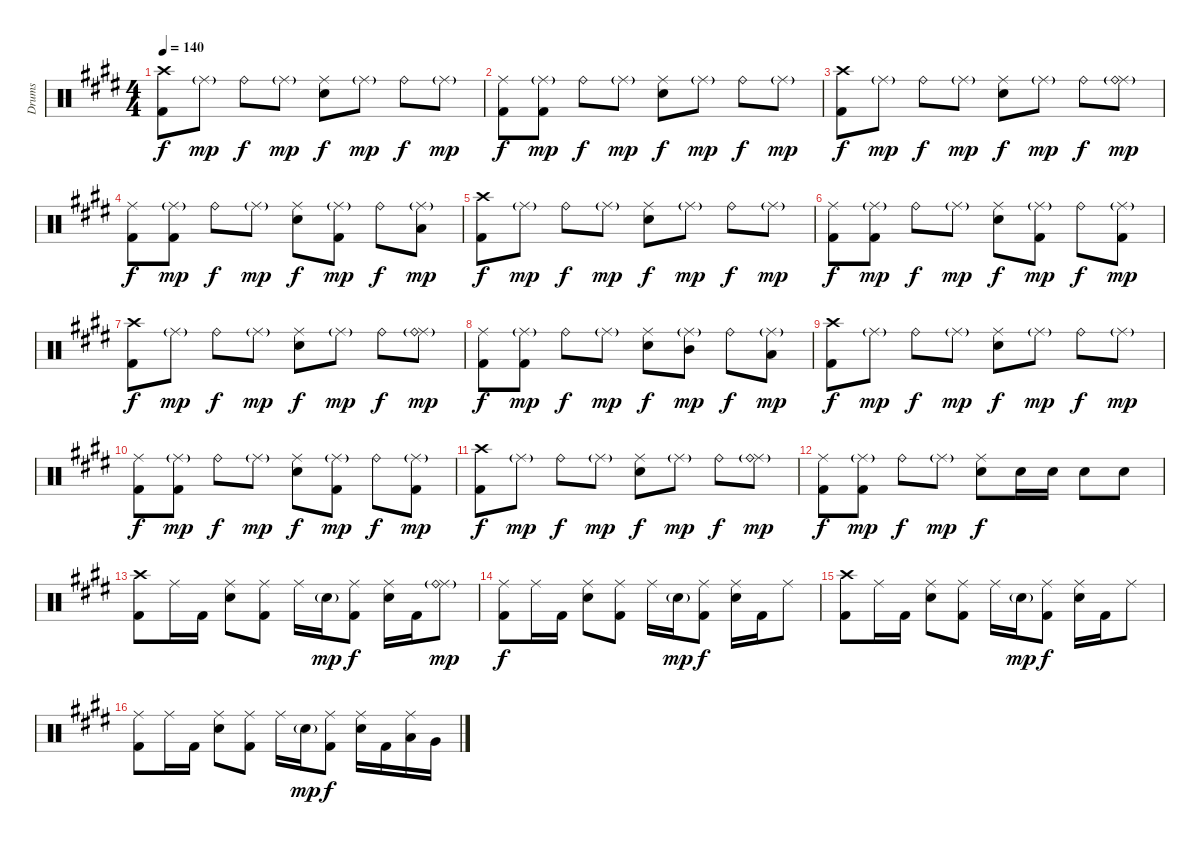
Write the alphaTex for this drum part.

\track ("Drums" "Drums") {instrument percussion}
\staff {score}
\articulation defaults
\ts (4 4)
\tempo 140
\clef neutral
\ks e
("Crash high (hit)" "Kick (hit) 2").8{dy f} "Ride (middle)"{g}.8{dy mp} "Ride (bell)".8{dy f} "Ride (middle)"{g}.8{dy mp} ("Ride (middle)" "Snare (hit) 2").8{dy f} "Ride (middle)"{g}.8{dy mp} "Ride (bell)".8{dy f} "Ride (middle)"{g}.8{dy mp} |
("Ride (middle)" "Kick (hit) 2").8{dy f} ("Ride (middle)"{g} "Kick (hit) 2").8{dy mp} "Ride (bell)".8{dy f} "Ride (middle)"{g}.8{dy mp} ("Ride (middle)" "Snare (hit) 2").8{dy f} "Ride (middle)"{g}.8{dy mp} "Ride (bell)".8{dy f} "Ride (middle)"{g}.8{dy mp} |
("Crash high (hit)" "Kick (hit) 2").8{dy f} "Ride (middle)"{g}.8{dy mp} "Ride (bell)".8{dy f} "Ride (middle)"{g}.8{dy mp} ("Ride (middle)" "Snare (hit) 2").8{dy f} "Ride (middle)"{g}.8{dy mp} "Ride (bell)".8{dy f} ("Ride (middle)"{g} "Ride (bell)"{g}).8{dy mp} |
("Ride (middle)" "Kick (hit) 2").8{dy f} ("Ride (middle)"{g} "Kick (hit) 2").8{dy mp} "Ride (bell)".8{dy f} "Ride (middle)"{g}.8{dy mp} ("Ride (middle)" "Snare (hit) 2").8{dy f} ("Ride (middle)"{g} "Kick (hit) 2").8{dy mp} "Ride (bell)".8{dy f} ("Ride (middle)"{g} "Low Tom (hit)").8{dy mp} |
("Crash high (hit)" "Kick (hit) 2").8{dy f} "Ride (middle)"{g}.8{dy mp} "Ride (bell)".8{dy f} "Ride (middle)"{g}.8{dy mp} ("Ride (middle)" "Snare (hit) 2").8{dy f} "Ride (middle)"{g}.8{dy mp} "Ride (bell)".8{dy f} "Ride (middle)"{g}.8{dy mp} |
("Ride (middle)" "Kick (hit) 2").8{dy f} ("Ride (middle)"{g} "Kick (hit) 2").8{dy mp} "Ride (bell)".8{dy f} "Ride (middle)"{g}.8{dy mp} ("Ride (middle)" "Snare (hit) 2").8{dy f} ("Ride (middle)"{g} "Kick (hit) 2").8{dy mp} "Ride (bell)".8{dy f} ("Ride (middle)"{g} "Kick (hit) 2").8{dy mp} |
("Crash high (hit)" "Kick (hit) 2").8{dy f} "Ride (middle)"{g}.8{dy mp} "Ride (bell)".8{dy f} "Ride (middle)"{g}.8{dy mp} ("Ride (middle)" "Snare (hit) 2").8{dy f} "Ride (middle)"{g}.8{dy mp} "Ride (bell)".8{dy f} ("Ride (middle)"{g} "Ride (bell)"{g}).8{dy mp} |
("Ride (middle)" "Kick (hit) 2").8{dy f} ("Ride (middle)"{g} "Kick (hit) 2").8{dy mp} "Ride (bell)".8{dy f} "Ride (middle)"{g}.8{dy mp} ("Ride (middle)" "Snare (hit) 2").8{dy f} ("Ride (middle)"{g} "Mid Tom (hit)").8{dy mp} "Ride (bell)".8{dy f} ("Ride (middle)"{g} "Low Tom (hit)").8{dy mp} |
("Crash high (hit)" "Kick (hit) 2").8{dy f} "Ride (middle)"{g}.8{dy mp} "Ride (bell)".8{dy f} "Ride (middle)"{g}.8{dy mp} ("Ride (middle)" "Snare (hit) 2").8{dy f} "Ride (middle)"{g}.8{dy mp} "Ride (bell)".8{dy f} "Ride (middle)"{g}.8{dy mp} |
("Ride (middle)" "Kick (hit) 2").8{dy f} ("Ride (middle)"{g} "Kick (hit) 2").8{dy mp} "Ride (bell)".8{dy f} "Ride (middle)"{g}.8{dy mp} ("Ride (middle)" "Snare (hit) 2").8{dy f} ("Ride (middle)"{g} "Kick (hit) 2").8{dy mp} "Ride (bell)".8{dy f} ("Ride (middle)"{g} "Kick (hit) 2").8{dy mp} |
("Crash high (hit)" "Kick (hit) 2").8{dy f} "Ride (middle)"{g}.8{dy mp} "Ride (bell)".8{dy f} "Ride (middle)"{g}.8{dy mp} ("Ride (middle)" "Snare (hit) 2").8{dy f} "Ride (middle)"{g}.8{dy mp} "Ride (bell)".8{dy f} ("Ride (middle)"{g} "Ride (bell)"{g}).8{dy mp} |
("Ride (middle)" "Kick (hit) 2").8{dy f} ("Ride (middle)"{g} "Kick (hit) 2").8{dy mp} "Ride (bell)".8{dy f} "Ride (middle)"{g}.8{dy mp} ("Ride (middle)" "Snare (hit) 2").8{dy f} "Snare (hit) 2".16 "Snare (hit) 2".16 "Snare (hit) 2".8 "Snare (hit) 2".8 |
("Crash high (hit)" "Kick (hit) 2").8 "Ride (middle)".16 "Kick (hit) 2".16 ("Ride (middle)" "Snare (hit) 2").8 ("Ride (middle)" "Kick (hit) 2").8 "Ride (middle)".16 "Snare (hit) 2"{g}.16{dy mp} ("Ride (middle)" "Kick (hit) 2").8{dy f} ("Ride (middle)" "Snare (hit) 2").16 "Kick (hit) 2".16 ("Ride (middle)" "Ride (bell)"{g}).8{dy mp} |
("Ride (middle)" "Kick (hit) 2").8{dy f} "Ride (middle)".16 "Kick (hit) 2".16 ("Ride (middle)" "Snare (hit) 2").8 ("Ride (middle)" "Kick (hit) 2").8 "Ride (middle)".16 "Snare (hit) 2"{g}.16{dy mp} ("Ride (middle)" "Kick (hit) 2").8{dy f} ("Ride (middle)" "Snare (hit) 2").16 "Kick (hit) 2".16 "Ride (middle)".8 |
("Crash high (hit)" "Kick (hit) 2").8 "Ride (middle)".16 "Kick (hit) 2".16 ("Ride (middle)" "Snare (hit) 2").8 ("Ride (middle)" "Kick (hit) 2").8 "Ride (middle)".16 "Snare (hit) 2"{g}.16{dy mp} ("Ride (middle)" "Kick (hit) 2").8{dy f} ("Ride (middle)" "Snare (hit) 2").16 "Kick (hit) 2".16 "Ride (middle)".8 |
("Ride (middle)" "Kick (hit) 2").8 "Ride (middle)".16 "Kick (hit) 2".16 ("Ride (middle)" "Snare (hit) 2").8 ("Ride (middle)" "Kick (hit) 2").8 "Ride (middle)".16 "Snare (hit) 2"{g}.16{dy mp} ("Ride (middle)" "Kick (hit) 2").8{dy f} ("Ride (middle)" "Snare (hit) 2").16 "Kick (hit) 2".16 ("Ride (middle)" "Low Tom (hit)").16 "Very Low Tom (hit)".16
